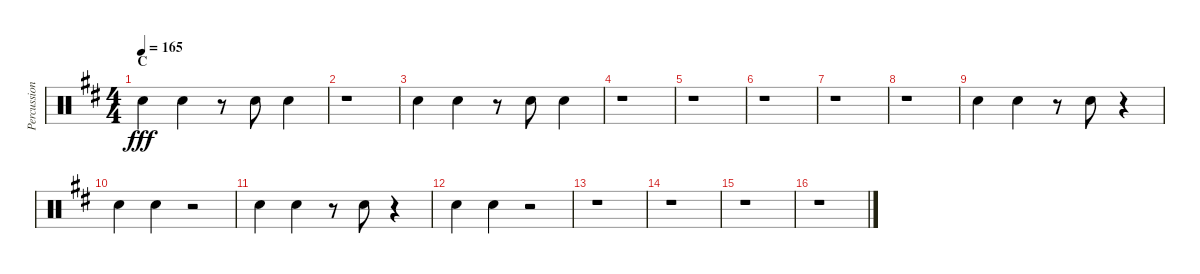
\track ("Percussion" "Percussion") {instrument percussion}
\staff {score}
\articulation defaults
\ts (4 4)
\section ("" "C")
\tempo 165
\clef neutral
\ks d "Hand Clap (hit)".4{dy fff} "Hand Clap (hit)".4
r.8 "Hand Clap (hit)".8 "Hand Clap (hit)".4 |
r.1 |
"Hand Clap (hit)".4 "Hand Clap (hit)".4 r.8 "Hand Clap (hit)".8 "Hand Clap (hit)".4 |
r.1 |
r.1 |
r.1 |
r.1 |
r.1 |
"Hand Clap (hit)".4 "Hand Clap (hit)".4 r.8 "Hand Clap (hit)".8 r.4 |
"Hand Clap (hit)".4 "Hand Clap (hit)".4 r.2 |
"Hand Clap (hit)".4 "Hand Clap (hit)".4 r.8 "Hand Clap (hit)".8 r.4 |
"Hand Clap (hit)".4 "Hand Clap (hit)".4 r.2 |
r.1 |
r.1 |
r.1 |
r.1
